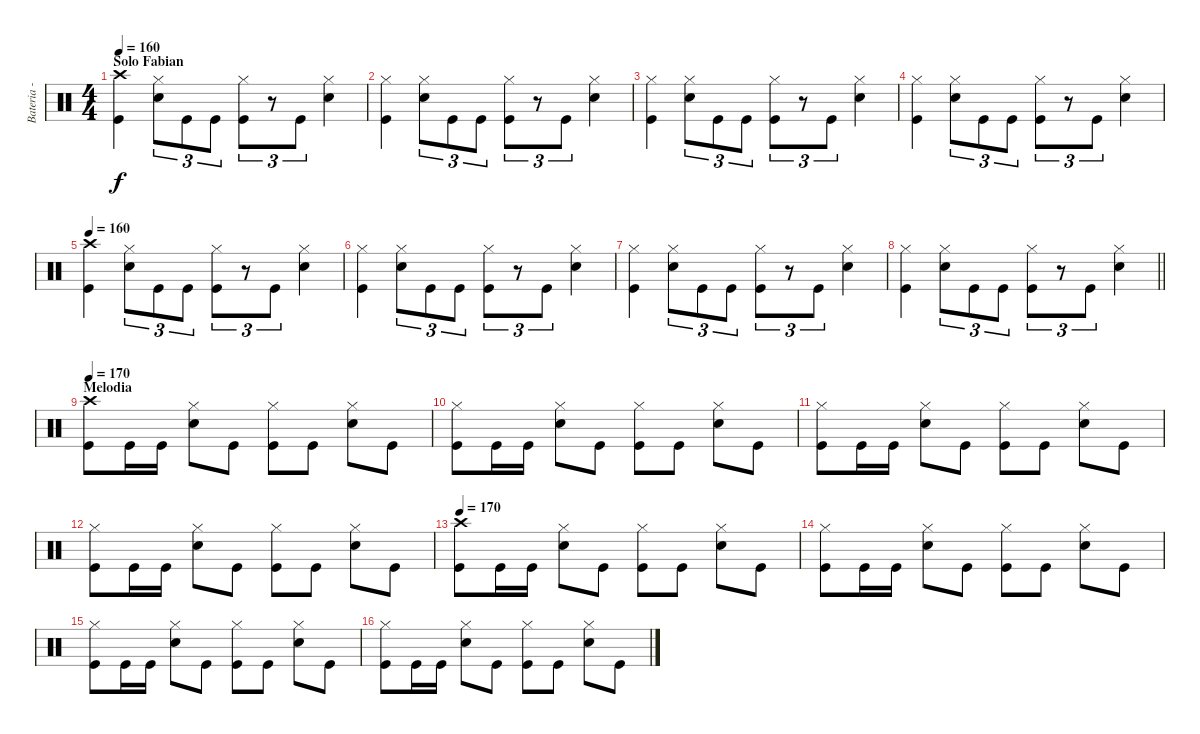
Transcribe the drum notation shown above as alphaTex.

\track ("Bateria - Joaquin" "Bateria - ") {instrument percussion}
\staff {score}
\articulation defaults
\ts (4 4)
\section ("" "Solo Fabian")
\tempo 160
\clef neutral
\ks c
("Crash high (hit)" "Kick (hit)").4{dy f} ("Snare (hit) 2" "Hi-Hat (closed)").8{tu (3 2)} "Kick (hit)".8{tu (3 2)} "Kick (hit)".8{tu (3 2)} ("Hi-Hat (closed)" "Kick (hit)").8{tu (3 2)} r.8{tu (3 2)} "Kick (hit)".8{tu (3 2)} ("Hi-Hat (closed)" "Snare (hit) 2").4 |
("Hi-Hat (closed)" "Kick (hit)").4 ("Snare (hit) 2" "Hi-Hat (closed)").8{tu (3 2)} "Kick (hit)".8{tu (3 2)} "Kick (hit)".8{tu (3 2)} ("Hi-Hat (closed)" "Kick (hit)").8{tu (3 2)} r.8{tu (3 2)} "Kick (hit)".8{tu (3 2)} ("Hi-Hat (closed)" "Snare (hit) 2").4 |
("Hi-Hat (closed)" "Kick (hit)").4 ("Snare (hit) 2" "Hi-Hat (closed)").8{tu (3 2)} "Kick (hit)".8{tu (3 2)} "Kick (hit)".8{tu (3 2)} ("Hi-Hat (closed)" "Kick (hit)").8{tu (3 2)} r.8{tu (3 2)} "Kick (hit)".8{tu (3 2)} ("Hi-Hat (closed)" "Snare (hit) 2").4 |
("Hi-Hat (closed)" "Kick (hit)").4 ("Snare (hit) 2" "Hi-Hat (closed)").8{tu (3 2)} "Kick (hit)".8{tu (3 2)} "Kick (hit)".8{tu (3 2)} ("Hi-Hat (closed)" "Kick (hit)").8{tu (3 2)} r.8{tu (3 2)} "Kick (hit)".8{tu (3 2)} ("Hi-Hat (closed)" "Snare (hit) 2").4 |
\tempo 160
("Crash high (hit)" "Kick (hit)").4 ("Snare (hit) 2" "Hi-Hat (closed)").8{tu (3 2)} "Kick (hit)".8{tu (3 2)} "Kick (hit)".8{tu (3 2)} ("Hi-Hat (closed)" "Kick (hit)").8{tu (3 2)} r.8{tu (3 2)} "Kick (hit)".8{tu (3 2)} ("Hi-Hat (closed)" "Snare (hit) 2").4 |
("Hi-Hat (closed)" "Kick (hit)").4 ("Snare (hit) 2" "Hi-Hat (closed)").8{tu (3 2)} "Kick (hit)".8{tu (3 2)} "Kick (hit)".8{tu (3 2)} ("Hi-Hat (closed)" "Kick (hit)").8{tu (3 2)} r.8{tu (3 2)} "Kick (hit)".8{tu (3 2)} ("Hi-Hat (closed)" "Snare (hit) 2").4 |
("Hi-Hat (closed)" "Kick (hit)").4 ("Snare (hit) 2" "Hi-Hat (closed)").8{tu (3 2)} "Kick (hit)".8{tu (3 2)} "Kick (hit)".8{tu (3 2)} ("Hi-Hat (closed)" "Kick (hit)").8{tu (3 2)} r.8{tu (3 2)} "Kick (hit)".8{tu (3 2)} ("Hi-Hat (closed)" "Snare (hit) 2").4 |
\barLineRight lightlight
("Hi-Hat (closed)" "Kick (hit)").4 ("Snare (hit) 2" "Hi-Hat (closed)").8{tu (3 2)} "Kick (hit)".8{tu (3 2)} "Kick (hit)".8{tu (3 2)} ("Hi-Hat (closed)" "Kick (hit)").8{tu (3 2)} r.8{tu (3 2)} "Kick (hit)".8{tu (3 2)} ("Hi-Hat (closed)" "Snare (hit) 2").4 |
\section ("" "Melodia")
\tempo 170
("Crash high (hit)" "Kick (hit)").8 "Kick (hit)".16 "Kick (hit)".16 ("Hi-Hat (closed)" "Snare (hit) 2").8 "Kick (hit)".8 ("Hi-Hat (closed)" "Kick (hit)").8 "Kick (hit)".8 ("Hi-Hat (closed)" "Snare (hit) 2").8 "Kick (hit)".8 |
("Hi-Hat (closed)" "Kick (hit)").8 "Kick (hit)".16 "Kick (hit)".16 ("Hi-Hat (closed)" "Snare (hit) 2").8 "Kick (hit)".8 ("Hi-Hat (closed)" "Kick (hit)").8 "Kick (hit)".8 ("Hi-Hat (closed)" "Snare (hit) 2").8 "Kick (hit)".8 |
("Hi-Hat (closed)" "Kick (hit)").8 "Kick (hit)".16 "Kick (hit)".16 ("Hi-Hat (closed)" "Snare (hit) 2").8 "Kick (hit)".8 ("Hi-Hat (closed)" "Kick (hit)").8 "Kick (hit)".8 ("Hi-Hat (closed)" "Snare (hit) 2").8 "Kick (hit)".8 |
("Hi-Hat (closed)" "Kick (hit)").8 "Kick (hit)".16 "Kick (hit)".16 ("Hi-Hat (closed)" "Snare (hit) 2").8 "Kick (hit)".8 ("Hi-Hat (closed)" "Kick (hit)").8 "Kick (hit)".8 ("Hi-Hat (closed)" "Snare (hit) 2").8 "Kick (hit)".8 |
\tempo 170
("Crash high (hit)" "Kick (hit)").8 "Kick (hit)".16 "Kick (hit)".16 ("Hi-Hat (closed)" "Snare (hit) 2").8 "Kick (hit)".8 ("Hi-Hat (closed)" "Kick (hit)").8 "Kick (hit)".8 ("Hi-Hat (closed)" "Snare (hit) 2").8 "Kick (hit)".8 |
("Hi-Hat (closed)" "Kick (hit)").8 "Kick (hit)".16 "Kick (hit)".16 ("Hi-Hat (closed)" "Snare (hit) 2").8 "Kick (hit)".8 ("Hi-Hat (closed)" "Kick (hit)").8 "Kick (hit)".8 ("Hi-Hat (closed)" "Snare (hit) 2").8 "Kick (hit)".8 |
("Hi-Hat (closed)" "Kick (hit)").8 "Kick (hit)".16 "Kick (hit)".16 ("Hi-Hat (closed)" "Snare (hit) 2").8 "Kick (hit)".8 ("Hi-Hat (closed)" "Kick (hit)").8 "Kick (hit)".8 ("Hi-Hat (closed)" "Snare (hit) 2").8 "Kick (hit)".8 |
("Hi-Hat (closed)" "Kick (hit)").8 "Kick (hit)".16 "Kick (hit)".16 ("Hi-Hat (closed)" "Snare (hit) 2").8 "Kick (hit)".8 ("Hi-Hat (closed)" "Kick (hit)").8 "Kick (hit)".8 ("Hi-Hat (closed)" "Snare (hit) 2").8 "Kick (hit)".8
